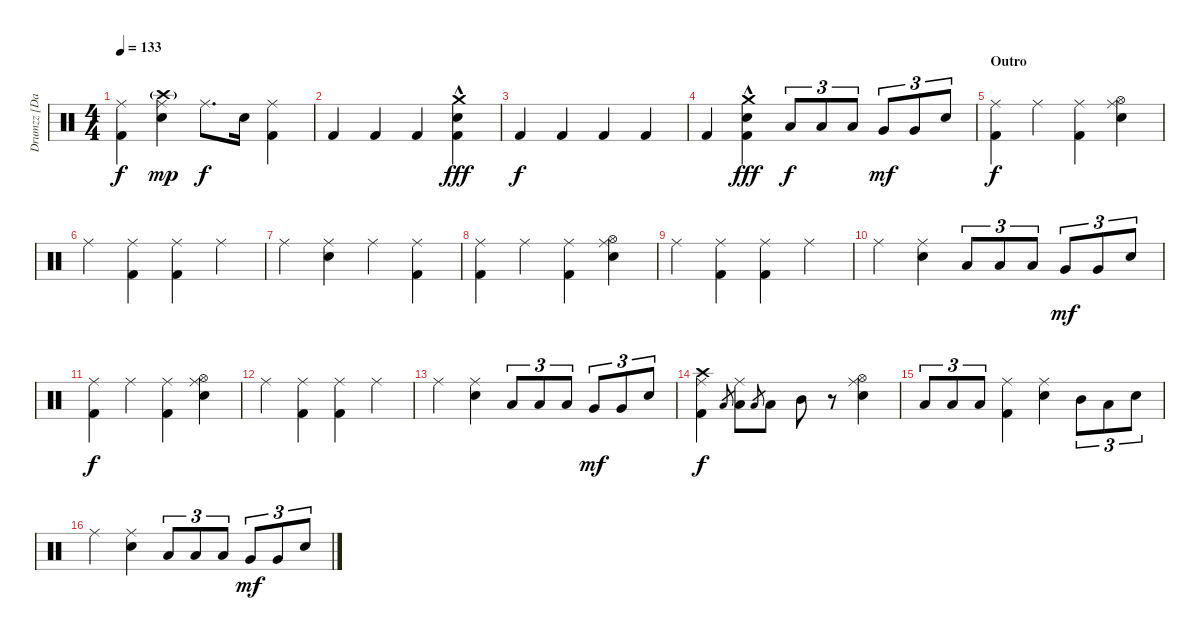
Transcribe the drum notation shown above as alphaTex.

\track ("Drumzz [Dave Grohl]" "Drumzz [Da") {instrument percussion}
\staff {score}
\articulation defaults
\ts (4 4)
\tempo 133
\clef neutral
\ks c
("Ride (middle)" "Kick (hit) 2").4{dy f} ("Ride (middle)" "Snare (hit) 2" "Crash high (hit)"{g}).4{dy mp} "Ride (middle)".8{d dy f} "Snare (hit) 2".16 ("Ride (middle)" "Kick (hit) 2").4 |
"Kick (hit) 2".4 "Kick (hit) 2".4 "Kick (hit) 2".4 ("Crash medium (hit)" "Snare (hit) 2"{hac} "Kick (hit) 2").4{dy fff} |
"Kick (hit) 2".4{dy f} "Kick (hit) 2".4 "Kick (hit) 2".4 "Kick (hit) 2".4 |
"Kick (hit) 2".4 ("Crash medium (hit)" "Snare (hit) 2"{hac} "Kick (hit) 2").4{dy fff} "Low Tom (hit)".8{tu (3 2) dy f} "Low Tom (hit)".8{tu (3 2)} "Low Tom (hit)".8{tu (3 2)} "Very Low Tom (hit)".8{tu (3 2) dy mf} "Very Low Tom (hit)".8{tu (3 2)} "Snare (hit) 2".8{tu (3 2)} |
\section ("" "Outro")
("Ride (middle)" "Kick (hit) 2").4{dy f} "Ride (middle)".4 ("Ride (middle)" "Kick (hit) 2").4 ("Ride (middle)" "Hi-Hat (open)" "Snare (hit) 2").4 |
"Ride (middle)".4 ("Ride (middle)" "Kick (hit) 2").4 ("Ride (middle)" "Kick (hit) 2").4 "Ride (middle)".4 |
"Ride (middle)".4 ("Ride (middle)" "Snare (hit) 2").4 "Ride (middle)".4 ("Ride (middle)" "Kick (hit) 2").4 |
("Ride (middle)" "Kick (hit) 2").4 "Ride (middle)".4 ("Ride (middle)" "Kick (hit) 2").4 ("Ride (middle)" "Hi-Hat (open)" "Snare (hit) 2").4 |
"Ride (middle)".4 ("Ride (middle)" "Kick (hit) 2").4 ("Ride (middle)" "Kick (hit) 2").4 "Ride (middle)".4 |
"Ride (middle)".4 ("Ride (middle)" "Snare (hit) 2").4 "Low Tom (hit)".8{tu (3 2)} "Low Tom (hit)".8{tu (3 2)} "Low Tom (hit)".8{tu (3 2)} "Very Low Tom (hit)".8{tu (3 2) dy mf} "Very Low Tom (hit)".8{tu (3 2)} "Snare (hit) 2".8{tu (3 2)} |
("Ride (middle)" "Kick (hit) 2").4{dy f} "Ride (middle)".4 ("Ride (middle)" "Kick (hit) 2").4 ("Ride (middle)" "Hi-Hat (open)" "Snare (hit) 2").4 |
"Ride (middle)".4 ("Ride (middle)" "Kick (hit) 2").4 ("Ride (middle)" "Kick (hit) 2").4 "Ride (middle)".4 |
"Ride (middle)".4 ("Ride (middle)" "Snare (hit) 2").4 "Low Tom (hit)".8{tu (3 2)} "Low Tom (hit)".8{tu (3 2)} "Low Tom (hit)".8{tu (3 2)} "Very Low Tom (hit)".8{tu (3 2) dy mf} "Very Low Tom (hit)".8{tu (3 2)} "Snare (hit) 2".8{tu (3 2)} |
("Ride (middle)" "Crash high (hit)" "Kick (hit) 2").4{dy f} "Low Tom (hit)".8{gr} ("Ride (middle)" "Low Tom (hit)").8 "Low Tom (hit)".8{gr} "Low Tom (hit)".8 "Mid Tom (hit)".8 r.8 ("Ride (middle)" "Hi-Hat (open)" "Snare (hit) 2").4 |
"Low Tom (hit)".8{tu (3 2)} "Low Tom (hit)".8{tu (3 2)} "Low Tom (hit)".8{tu (3 2)} ("Ride (middle)" "Kick (hit) 2").4 ("Ride (middle)" "Snare (hit) 2").4 "Mid Tom (hit)".8{tu (3 2)} "Low Tom (hit)".8{tu (3 2)} "Snare (hit) 2".8{tu (3 2)} |
"Ride (middle)".4 ("Ride (middle)" "Snare (hit) 2").4 "Low Tom (hit)".8{tu (3 2)} "Low Tom (hit)".8{tu (3 2)} "Low Tom (hit)".8{tu (3 2)} "Very Low Tom (hit)".8{tu (3 2) dy mf} "Very Low Tom (hit)".8{tu (3 2)} "Snare (hit) 2".8{tu (3 2)}
